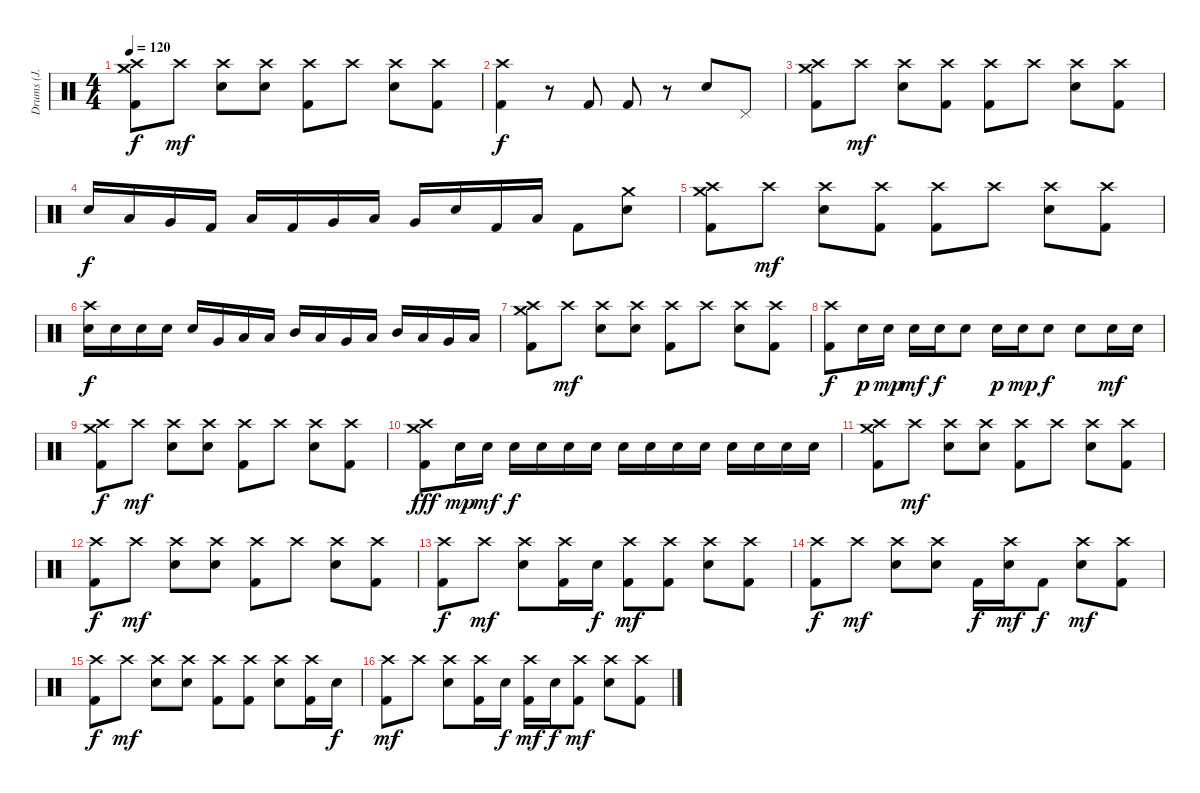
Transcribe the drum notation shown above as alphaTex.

\track ("Drums (J. Cramer)" "Drums (J. ") {instrument percussion}
\staff {score}
\articulation defaults
\ts (4 4)
\tempo 120
\clef neutral
\ks c
("Crash high (hit)" "Crash medium (hit)" "Kick (hit) 2").8{dy f} "Crash high (hit)".8{dy mf} ("Crash high (hit)" "Electric Snare (hit)").8 ("Crash high (hit)" "Electric Snare (hit)").8 ("Crash high (hit)" "Kick (hit) 2").8 "Crash high (hit)".8 ("Crash high (hit)" "Electric Snare (hit)").8 ("Crash high (hit)" "Kick (hit) 2").8 |
("Crash high (hit)" "Kick (hit) 2").4{dy f} r.8 "Kick (hit) 2".8 "Kick (hit) 2".8 r.8 "Electric Snare (hit)".8 "Pedal Hi-Hat (hit)".8 |
("Crash high (hit)" "Crash medium (hit)" "Kick (hit) 2").8 "Crash high (hit)".8{dy mf} ("Crash high (hit)" "Electric Snare (hit)").8 ("Crash high (hit)" "Kick (hit) 2").8 ("Crash high (hit)" "Kick (hit) 2").8 "Crash high (hit)".8 ("Crash high (hit)" "Electric Snare (hit)").8 ("Crash high (hit)" "Kick (hit) 2").8 |
"Electric Snare (hit)".16{dy f} "Low Tom (hit)".16 "Very Low Tom (hit)".16 "Kick (hit) 2".16 "Low Tom (hit)".16 "Kick (hit) 2".16 "Very Low Tom (hit)".16 "Low Tom (hit)".16 "Very Low Tom (hit)".16 "Electric Snare (hit)".16 "Kick (hit) 2".16 "Low Tom (hit)".16 "Kick (hit) 2".8 ("Crash medium (hit)" "Electric Snare (hit)").8 |
("Crash high (hit)" "Crash medium (hit)" "Kick (hit) 2").8 "Crash high (hit)".8{dy mf} ("Crash high (hit)" "Electric Snare (hit)").8 ("Crash high (hit)" "Kick (hit) 2").8 ("Crash high (hit)" "Kick (hit) 2").8 "Crash high (hit)".8 ("Crash high (hit)" "Electric Snare (hit)").8 ("Crash high (hit)" "Kick (hit) 2").8 |
("Crash high (hit)" "Electric Snare (hit)").16{dy f} "Electric Snare (hit)".16 "Electric Snare (hit)".16 "Electric Snare (hit)".16 "Electric Snare (hit)".16 "Very Low Tom (hit)".16 "Low Floor Tom (hit)".16 "Low Tom (hit)".16 "Mid Tom (hit)".16 "Low Tom (hit)".16 "Very Low Tom (hit)".16 "Low Floor Tom (hit)".16 "Mid Tom (hit)".16 "Low Tom (hit)".16 "Very Low Tom (hit)".16 "Low Floor Tom (hit)".16 |
("Crash high (hit)" "Crash medium (hit)" "Kick (hit) 2").8 "Crash high (hit)".8{dy mf} ("Crash high (hit)" "Electric Snare (hit)").8 ("Crash high (hit)" "Electric Snare (hit)").8 ("Crash high (hit)" "Kick (hit) 2").8 "Crash high (hit)".8 ("Crash high (hit)" "Electric Snare (hit)").8 ("Crash high (hit)" "Kick (hit) 2").8 |
("Crash high (hit)" "Kick (hit) 2").8{dy f} "Electric Snare (hit)".16{dy p} "Electric Snare (hit)".16{dy mp} "Electric Snare (hit)".16{dy mf} "Electric Snare (hit)".16{dy f} "Electric Snare (hit)".8 "Electric Snare (hit)".16{dy p} "Electric Snare (hit)".16{dy mp} "Electric Snare (hit)".8{dy f} "Electric Snare (hit)".8 "Electric Snare (hit)".16{dy mf} "Electric Snare (hit)".16 |
("Crash high (hit)" "Crash medium (hit)" "Kick (hit) 2").8{dy f} "Crash high (hit)".8{dy mf} ("Crash high (hit)" "Electric Snare (hit)").8 ("Crash high (hit)" "Electric Snare (hit)").8 ("Crash high (hit)" "Kick (hit) 2").8 "Crash high (hit)".8 ("Crash high (hit)" "Electric Snare (hit)").8 ("Crash high (hit)" "Kick (hit) 2").8 |
("Crash high (hit)" "Crash medium (hit)" "Kick (hit) 2").8{dy fff} "Electric Snare (hit)".16{dy mp} "Electric Snare (hit)".16{dy mf} "Electric Snare (hit)".16{dy f} "Electric Snare (hit)".16 "Electric Snare (hit)".16 "Electric Snare (hit)".16 "Electric Snare (hit)".16 "Electric Snare (hit)".16 "Electric Snare (hit)".16 "Electric Snare (hit)".16 "Electric Snare (hit)".16 "Electric Snare (hit)".16 "Electric Snare (hit)".16 "Electric Snare (hit)".16 |
("Crash high (hit)" "Crash medium (hit)" "Kick (hit) 2").8 "Crash high (hit)".8{dy mf} ("Crash high (hit)" "Electric Snare (hit)").8 ("Crash high (hit)" "Electric Snare (hit)").8 ("Crash high (hit)" "Kick (hit) 2").8 "Crash high (hit)".8 ("Crash high (hit)" "Electric Snare (hit)").8 ("Crash high (hit)" "Kick (hit) 2").8 |
("Crash high (hit)" "Kick (hit) 2").8{dy f} "Crash high (hit)".8{dy mf} ("Crash high (hit)" "Electric Snare (hit)").8 ("Crash high (hit)" "Electric Snare (hit)").8 ("Crash high (hit)" "Kick (hit) 2").8 "Crash high (hit)".8 ("Crash high (hit)" "Electric Snare (hit)").8 ("Crash high (hit)" "Kick (hit) 2").8 |
("Crash high (hit)" "Kick (hit) 2").8{dy f} "Crash high (hit)".8{dy mf} ("Crash high (hit)" "Electric Snare (hit)").8 ("Crash high (hit)" "Kick (hit) 2").16 "Electric Snare (hit)".16{dy f} ("Crash high (hit)" "Kick (hit) 2").8{dy mf} ("Crash high (hit)" "Kick (hit) 2").8 ("Crash high (hit)" "Electric Snare (hit)").8 ("Crash high (hit)" "Kick (hit) 2").8 |
("Crash high (hit)" "Kick (hit) 2").8{dy f} "Crash high (hit)".8{dy mf} ("Crash high (hit)" "Electric Snare (hit)").8 ("Crash high (hit)" "Electric Snare (hit)").8 "Kick (hit) 2".16{dy f} ("Crash high (hit)" "Electric Snare (hit)").16{dy mf} "Kick (hit) 2".8{dy f} ("Crash high (hit)" "Electric Snare (hit)").8{dy mf} ("Crash high (hit)" "Kick (hit) 2").8 |
("Crash high (hit)" "Kick (hit) 2").8{dy f} "Crash high (hit)".8{dy mf} ("Crash high (hit)" "Electric Snare (hit)").8 ("Crash high (hit)" "Electric Snare (hit)").8 ("Crash high (hit)" "Kick (hit) 2").8 ("Crash high (hit)" "Kick (hit) 2").8 ("Crash high (hit)" "Electric Snare (hit)").8 ("Crash high (hit)" "Kick (hit) 2").16 "Electric Snare (hit)".16{dy f} |
("Crash high (hit)" "Kick (hit) 2").8{dy mf} "Crash high (hit)".8 ("Crash high (hit)" "Electric Snare (hit)").8 ("Crash high (hit)" "Kick (hit) 2").16 "Electric Snare (hit)".16{dy f} ("Crash high (hit)" "Kick (hit) 2").16{dy mf} "Electric Snare (hit)".16{dy f} ("Crash high (hit)" "Kick (hit) 2").8{dy mf} ("Crash high (hit)" "Electric Snare (hit)").8 ("Crash high (hit)" "Kick (hit) 2").8
